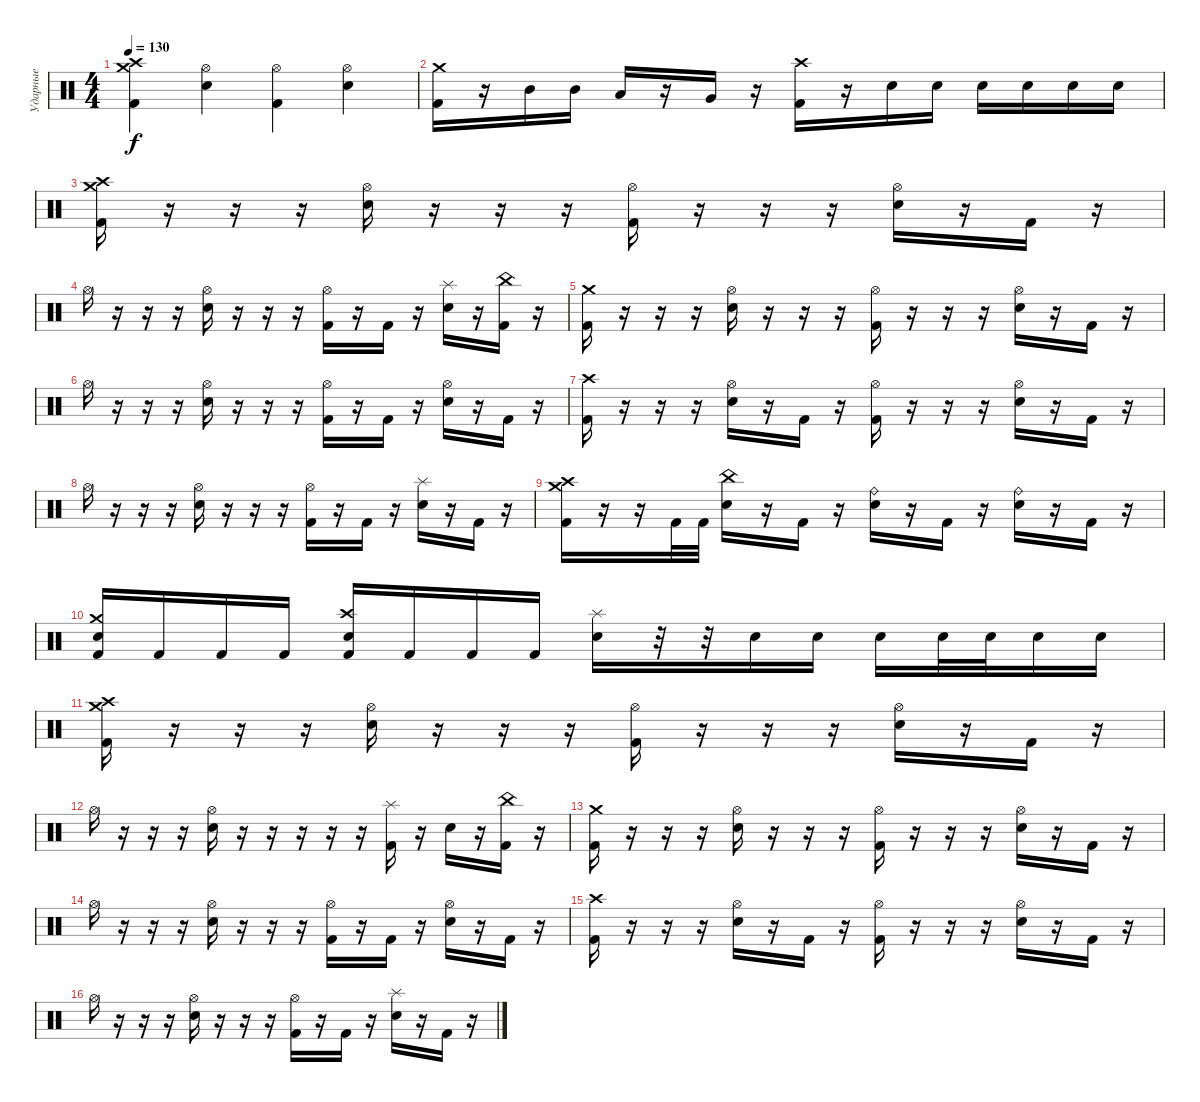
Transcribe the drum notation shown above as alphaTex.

\track ("Ударные" "Ударные") {instrument percussion}
\staff {score}
\articulation defaults
\ts (4 4)
\tempo 130
\clef neutral
\ks c
("Kick (hit) 2" "Crash high (hit)" "Crash medium (hit)").4{dy f} ("Electric Snare (hit)" "Hi-Hat (open)").4 ("Kick (hit) 2" "Hi-Hat (open)").4 ("Electric Snare (hit)" "Hi-Hat (open)").4 |
("Kick (hit) 2" "Crash medium (hit)").16 r.16 "Mid Tom (hit)".16 "Mid Tom (hit)".16 "Low Tom (hit)".16 r.16 "Very Low Tom (hit)".16 r.16 ("Kick (hit) 2" "Crash high (hit)").16 r.16 "Electric Snare (hit)".16 "Electric Snare (hit)".16 "Electric Snare (hit)".16 "Electric Snare (hit)".16 "Electric Snare (hit)".16 "Electric Snare (hit)".16 |
("Kick (hit) 2" "Crash high (hit)" "Crash medium (hit)").16 r.16 r.16 r.16 ("Electric Snare (hit)" "Hi-Hat (open)").16 r.16 r.16 r.16 ("Kick (hit) 2" "Hi-Hat (open)").16 r.16 r.16 r.16 ("Electric Snare (hit)" "Hi-Hat (open)").16 r.16 "Kick (hit) 2".16 r.16 |
"Hi-Hat (open)".16 r.16 r.16 r.16 ("Electric Snare (hit)" "Hi-Hat (open)").16 r.16 r.16 r.16 ("Kick (hit) 2" "Hi-Hat (open)").16 r.16 "Kick (hit) 2".16 r.16 ("Electric Snare (hit)" "Splash (hit)").16 r.16 ("Kick (hit) 2" "China (hit)").16 r.16 |
("Kick (hit) 2" "Crash medium (hit)").16 r.16 r.16 r.16 ("Electric Snare (hit)" "Hi-Hat (open)").16 r.16 r.16 r.16 ("Kick (hit) 2" "Hi-Hat (open)").16 r.16 r.16 r.16 ("Electric Snare (hit)" "Hi-Hat (open)").16 r.16 "Kick (hit) 2".16 r.16 |
"Hi-Hat (open)".16 r.16 r.16 r.16 ("Electric Snare (hit)" "Hi-Hat (open)").16 r.16 r.16 r.16 ("Kick (hit) 2" "Hi-Hat (open)").16 r.16 "Kick (hit) 2".16 r.16 ("Electric Snare (hit)" "Hi-Hat (open)").16 r.16 "Kick (hit) 2".16 r.16 |
("Kick (hit) 2" "Crash high (hit)").16 r.16 r.16 r.16 ("Electric Snare (hit)" "Hi-Hat (open)").16 r.16 "Kick (hit) 2".16 r.16 ("Kick (hit) 2" "Hi-Hat (open)").16 r.16 r.16 r.16 ("Electric Snare (hit)" "Hi-Hat (open)").16 r.16 "Kick (hit) 2".16 r.16 |
"Hi-Hat (open)".16 r.16 r.16 r.16 ("Electric Snare (hit)" "Hi-Hat (open)").16 r.16 r.16 r.16 ("Kick (hit) 2" "Hi-Hat (open)").16 r.16 "Kick (hit) 2".16 r.16 ("Electric Snare (hit)" "Splash (hit)").16 r.16 "Kick (hit) 2".16 r.16 |
("Kick (hit) 2" "Crash high (hit)" "Crash medium (hit)").16 r.16 r.16 "Kick (hit) 2".32 "Kick (hit) 2".32 ("Electric Snare (hit)" "China (hit)").16 r.16 "Kick (hit) 2".16 r.16 ("Electric Snare (hit)" "Ride (bell)").16 r.16 "Kick (hit) 2".16 r.16 ("Electric Snare (hit)" "Ride (bell)").16 r.16 "Kick (hit) 2".16 r.16 |
("Kick (hit) 2" "Electric Snare (hit)" "Crash medium (hit)").16 "Kick (hit) 2".16 "Kick (hit) 2".16 "Kick (hit) 2".16 ("Kick (hit) 2" "Electric Snare (hit)" "Crash high (hit)").16 "Kick (hit) 2".16 "Kick (hit) 2".16 "Kick (hit) 2".16 ("Electric Snare (hit)" "Splash (hit)").16 r.32 r.32 "Electric Snare (hit)".16 "Electric Snare (hit)".16 "Electric Snare (hit)".16 "Electric Snare (hit)".32 "Electric Snare (hit)".32 "Electric Snare (hit)".16 "Electric Snare (hit)".16 |
("Kick (hit) 2" "Crash high (hit)" "Crash medium (hit)").16 r.16 r.16 r.16 ("Electric Snare (hit)" "Hi-Hat (open)").16 r.16 r.16 r.16 ("Kick (hit) 2" "Hi-Hat (open)").16 r.16 r.16 r.16 ("Electric Snare (hit)" "Hi-Hat (open)").16 r.16 "Kick (hit) 2".16 r.16 |
"Hi-Hat (open)".16 r.16 r.16 r.16 ("Electric Snare (hit)" "Hi-Hat (open)").16 r.16 r.16 r.16 r.16 r.16 ("Kick (hit) 2" "Splash (hit)").16 r.16 "Electric Snare (hit)".16 r.16 ("Kick (hit) 2" "China (hit)").16 r.16 |
("Kick (hit) 2" "Crash medium (hit)").16 r.16 r.16 r.16 ("Electric Snare (hit)" "Hi-Hat (open)").16 r.16 r.16 r.16 ("Kick (hit) 2" "Hi-Hat (open)").16 r.16 r.16 r.16 ("Electric Snare (hit)" "Hi-Hat (open)").16 r.16 "Kick (hit) 2".16 r.16 |
"Hi-Hat (open)".16 r.16 r.16 r.16 ("Electric Snare (hit)" "Hi-Hat (open)").16 r.16 r.16 r.16 ("Kick (hit) 2" "Hi-Hat (open)").16 r.16 "Kick (hit) 2".16 r.16 ("Electric Snare (hit)" "Hi-Hat (open)").16 r.16 "Kick (hit) 2".16 r.16 |
("Kick (hit) 2" "Crash high (hit)").16 r.16 r.16 r.16 ("Electric Snare (hit)" "Hi-Hat (open)").16 r.16 "Kick (hit) 2".16 r.16 ("Kick (hit) 2" "Hi-Hat (open)").16 r.16 r.16 r.16 ("Electric Snare (hit)" "Hi-Hat (open)").16 r.16 "Kick (hit) 2".16 r.16 |
"Hi-Hat (open)".16 r.16 r.16 r.16 ("Electric Snare (hit)" "Hi-Hat (open)").16 r.16 r.16 r.16 ("Kick (hit) 2" "Hi-Hat (open)").16 r.16 "Kick (hit) 2".16 r.16 ("Electric Snare (hit)" "Splash (hit)").16 r.16 "Kick (hit) 2".16 r.16
